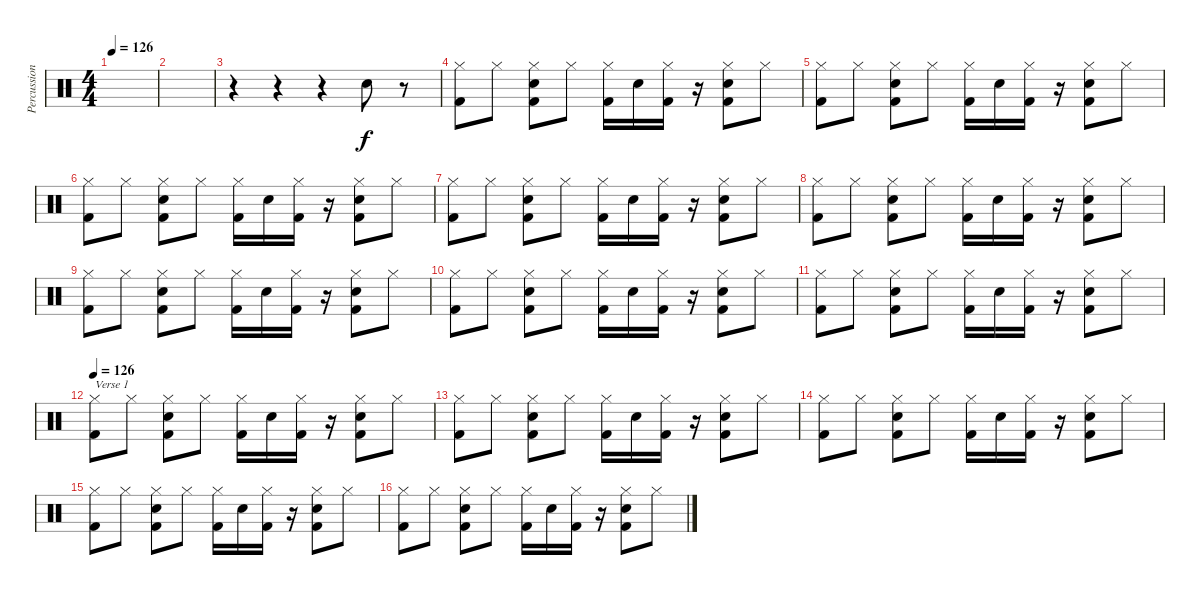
\track ("Percussion" "Percussion") {instrument percussion}
\staff {score}
\articulation defaults
\ts (4 4)
\tempo 126
\clef neutral
\ks c
|
|
r.4 r.4 r.4 "Electric Snare (hit)".8 r.8 |
("Hi-Hat (closed)" "Kick (hit) 2").8 "Hi-Hat (closed)".8 ("Hi-Hat (closed)" "Electric Snare (hit)" "Kick (hit) 2").8 "Hi-Hat (closed)".8 ("Hi-Hat (closed)" "Kick (hit) 2").16 "Electric Snare (hit)".16 ("Hi-Hat (closed)" "Kick (hit) 2").16 r.16 ("Hi-Hat (closed)" "Electric Snare (hit)" "Kick (hit) 2").8 "Hi-Hat (closed)".8 |
("Hi-Hat (closed)" "Kick (hit) 2").8 "Hi-Hat (closed)".8 ("Hi-Hat (closed)" "Electric Snare (hit)" "Kick (hit) 2").8 "Hi-Hat (closed)".8 ("Hi-Hat (closed)" "Kick (hit) 2").16 "Electric Snare (hit)".16 ("Hi-Hat (closed)" "Kick (hit) 2").16 r.16 ("Hi-Hat (closed)" "Electric Snare (hit)" "Kick (hit) 2").8 "Hi-Hat (closed)".8 |
("Hi-Hat (closed)" "Kick (hit) 2").8 "Hi-Hat (closed)".8 ("Hi-Hat (closed)" "Electric Snare (hit)" "Kick (hit) 2").8 "Hi-Hat (closed)".8 ("Hi-Hat (closed)" "Kick (hit) 2").16 "Electric Snare (hit)".16 ("Hi-Hat (closed)" "Kick (hit) 2").16 r.16 ("Hi-Hat (closed)" "Electric Snare (hit)" "Kick (hit) 2").8 "Hi-Hat (closed)".8 |
("Hi-Hat (closed)" "Kick (hit) 2").8 "Hi-Hat (closed)".8 ("Hi-Hat (closed)" "Electric Snare (hit)" "Kick (hit) 2").8 "Hi-Hat (closed)".8 ("Hi-Hat (closed)" "Kick (hit) 2").16 "Electric Snare (hit)".16 ("Hi-Hat (closed)" "Kick (hit) 2").16 r.16 ("Hi-Hat (closed)" "Electric Snare (hit)" "Kick (hit) 2").8 "Hi-Hat (closed)".8 |
("Hi-Hat (closed)" "Kick (hit) 2").8 "Hi-Hat (closed)".8 ("Hi-Hat (closed)" "Electric Snare (hit)" "Kick (hit) 2").8 "Hi-Hat (closed)".8 ("Hi-Hat (closed)" "Kick (hit) 2").16 "Electric Snare (hit)".16 ("Hi-Hat (closed)" "Kick (hit) 2").16 r.16 ("Hi-Hat (closed)" "Electric Snare (hit)" "Kick (hit) 2").8 "Hi-Hat (closed)".8 |
("Hi-Hat (closed)" "Kick (hit) 2").8 "Hi-Hat (closed)".8 ("Hi-Hat (closed)" "Electric Snare (hit)" "Kick (hit) 2").8 "Hi-Hat (closed)".8 ("Hi-Hat (closed)" "Kick (hit) 2").16 "Electric Snare (hit)".16 ("Hi-Hat (closed)" "Kick (hit) 2").16 r.16 ("Hi-Hat (closed)" "Electric Snare (hit)" "Kick (hit) 2").8 "Hi-Hat (closed)".8 |
("Hi-Hat (closed)" "Kick (hit) 2").8 "Hi-Hat (closed)".8 ("Hi-Hat (closed)" "Electric Snare (hit)" "Kick (hit) 2").8 "Hi-Hat (closed)".8 ("Hi-Hat (closed)" "Kick (hit) 2").16 "Electric Snare (hit)".16 ("Hi-Hat (closed)" "Kick (hit) 2").16 r.16 ("Hi-Hat (closed)" "Electric Snare (hit)" "Kick (hit) 2").8 "Hi-Hat (closed)".8 |
("Hi-Hat (closed)" "Kick (hit) 2").8 "Hi-Hat (closed)".8 ("Hi-Hat (closed)" "Electric Snare (hit)" "Kick (hit) 2").8 "Hi-Hat (closed)".8 ("Hi-Hat (closed)" "Kick (hit) 2").16 "Electric Snare (hit)".16 ("Hi-Hat (closed)" "Kick (hit) 2").16 r.16 ("Hi-Hat (closed)" "Electric Snare (hit)" "Kick (hit) 2").8 "Hi-Hat (closed)".8 |
\tempo 126
("Hi-Hat (closed)" "Kick (hit) 2").8{txt "Verse 1"} "Hi-Hat (closed)".8 ("Hi-Hat (closed)" "Electric Snare (hit)" "Kick (hit) 2").8 "Hi-Hat (closed)".8 ("Hi-Hat (closed)" "Kick (hit) 2").16 "Electric Snare (hit)".16 ("Hi-Hat (closed)" "Kick (hit) 2").16 r.16 ("Hi-Hat (closed)" "Electric Snare (hit)" "Kick (hit) 2").8 "Hi-Hat (closed)".8 |
("Hi-Hat (closed)" "Kick (hit) 2").8 "Hi-Hat (closed)".8 ("Hi-Hat (closed)" "Electric Snare (hit)" "Kick (hit) 2").8 "Hi-Hat (closed)".8 ("Hi-Hat (closed)" "Kick (hit) 2").16 "Electric Snare (hit)".16 ("Hi-Hat (closed)" "Kick (hit) 2").16 r.16 ("Hi-Hat (closed)" "Electric Snare (hit)" "Kick (hit) 2").8 "Hi-Hat (closed)".8 |
("Hi-Hat (closed)" "Kick (hit) 2").8 "Hi-Hat (closed)".8 ("Hi-Hat (closed)" "Electric Snare (hit)" "Kick (hit) 2").8 "Hi-Hat (closed)".8 ("Hi-Hat (closed)" "Kick (hit) 2").16 "Electric Snare (hit)".16 ("Hi-Hat (closed)" "Kick (hit) 2").16 r.16 ("Hi-Hat (closed)" "Electric Snare (hit)" "Kick (hit) 2").8 "Hi-Hat (closed)".8 |
("Hi-Hat (closed)" "Kick (hit) 2").8 "Hi-Hat (closed)".8 ("Hi-Hat (closed)" "Electric Snare (hit)" "Kick (hit) 2").8 "Hi-Hat (closed)".8 ("Hi-Hat (closed)" "Kick (hit) 2").16 "Electric Snare (hit)".16 ("Hi-Hat (closed)" "Kick (hit) 2").16 r.16 ("Hi-Hat (closed)" "Electric Snare (hit)" "Kick (hit) 2").8 "Hi-Hat (closed)".8 |
("Hi-Hat (closed)" "Kick (hit) 2").8 "Hi-Hat (closed)".8 ("Hi-Hat (closed)" "Electric Snare (hit)" "Kick (hit) 2").8 "Hi-Hat (closed)".8 ("Hi-Hat (closed)" "Kick (hit) 2").16 "Electric Snare (hit)".16 ("Hi-Hat (closed)" "Kick (hit) 2").16 r.16 ("Hi-Hat (closed)" "Electric Snare (hit)" "Kick (hit) 2").8 "Hi-Hat (closed)".8
